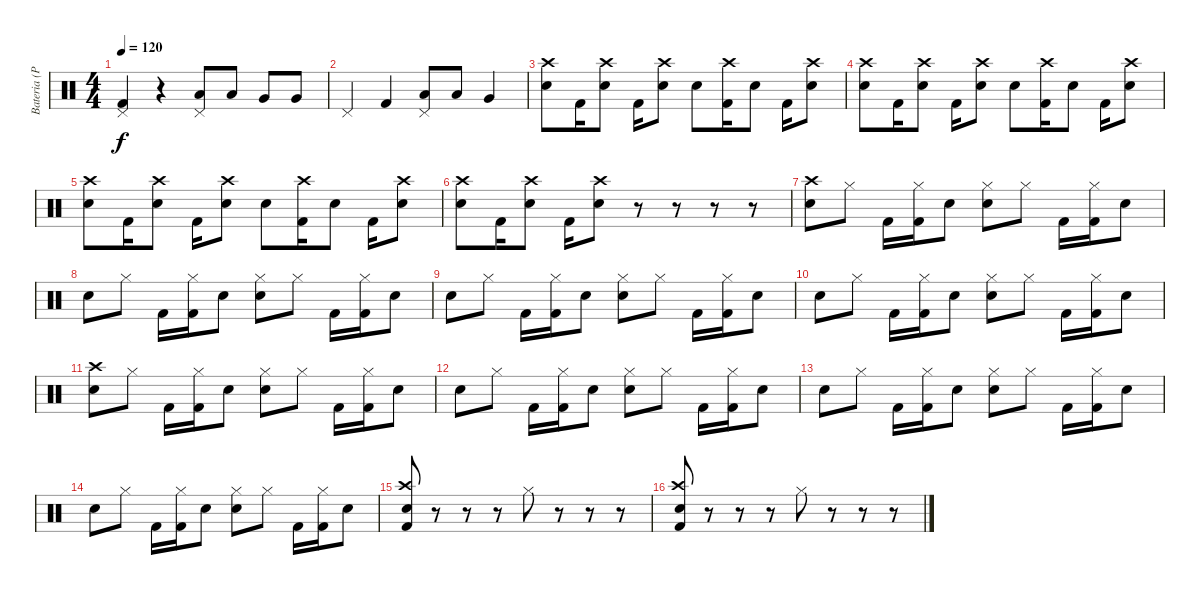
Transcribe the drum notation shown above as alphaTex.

\track ("Bateria (Pelado)" "Bateria (P") {instrument percussion}
\staff {score}
\articulation defaults
\ts (4 4)
\tempo 120
\clef neutral
\ks c
("Pedal Hi-Hat (hit)" "Kick (hit) 2").4{dy f} r.4 ("Pedal Hi-Hat (hit)" "Low Tom (hit)").8 "Low Tom (hit)".8 "Very Low Tom (hit)".8 "Very Low Tom (hit)".8 |
"Pedal Hi-Hat (hit)".4 "Kick (hit) 2".4 ("Pedal Hi-Hat (hit)" "Low Tom (hit)").8 "Low Tom (hit)".8 "Very Low Tom (hit)".4 |
("Crash high (hit)" "Electric Snare (hit)").8 "Kick (hit) 2".16 ("Crash high (hit)" "Electric Snare (hit)").8 "Kick (hit) 2".16 ("Crash high (hit)" "Electric Snare (hit)").8 "Electric Snare (hit)".8 ("Crash high (hit)" "Kick (hit) 2").16 "Electric Snare (hit)".8 "Kick (hit) 2".16 ("Crash high (hit)" "Electric Snare (hit)").8 |
("Crash high (hit)" "Electric Snare (hit)").8 "Kick (hit) 2".16 ("Crash high (hit)" "Electric Snare (hit)").8 "Kick (hit) 2".16 ("Crash high (hit)" "Electric Snare (hit)").8 "Electric Snare (hit)".8 ("Crash high (hit)" "Kick (hit) 2").16 "Electric Snare (hit)".8 "Kick (hit) 2".16 ("Crash high (hit)" "Electric Snare (hit)").8 |
("Crash high (hit)" "Electric Snare (hit)").8 "Kick (hit) 2".16 ("Crash high (hit)" "Electric Snare (hit)").8 "Kick (hit) 2".16 ("Crash high (hit)" "Electric Snare (hit)").8 "Electric Snare (hit)".8 ("Crash high (hit)" "Kick (hit) 2").16 "Electric Snare (hit)".8 "Kick (hit) 2".16 ("Crash high (hit)" "Electric Snare (hit)").8 |
("Crash high (hit)" "Electric Snare (hit)").8 "Kick (hit) 2".16 ("Crash high (hit)" "Electric Snare (hit)").8 "Kick (hit) 2".16 ("Crash high (hit)" "Electric Snare (hit)").8 r.8 r.8 r.8 r.8 |
("Crash high (hit)" "Electric Snare (hit)").8 "Hi-Hat (closed)".8 "Kick (hit) 2".16 ("Hi-Hat (closed)" "Kick (hit) 2").16 "Electric Snare (hit)".8 ("Hi-Hat (closed)" "Electric Snare (hit)").8 "Hi-Hat (closed)".8 "Kick (hit) 2".16 ("Hi-Hat (closed)" "Kick (hit) 2").16 "Electric Snare (hit)".8 |
"Electric Snare (hit)".8 "Hi-Hat (closed)".8 "Kick (hit) 2".16 ("Hi-Hat (closed)" "Kick (hit) 2").16 "Electric Snare (hit)".8 ("Hi-Hat (closed)" "Electric Snare (hit)").8 "Hi-Hat (closed)".8 "Kick (hit) 2".16 ("Hi-Hat (closed)" "Kick (hit) 2").16 "Electric Snare (hit)".8 |
"Electric Snare (hit)".8 "Hi-Hat (closed)".8 "Kick (hit) 2".16 ("Hi-Hat (closed)" "Kick (hit) 2").16 "Electric Snare (hit)".8 ("Hi-Hat (closed)" "Electric Snare (hit)").8 "Hi-Hat (closed)".8 "Kick (hit) 2".16 ("Hi-Hat (closed)" "Kick (hit) 2").16 "Electric Snare (hit)".8 |
"Electric Snare (hit)".8 "Hi-Hat (closed)".8 "Kick (hit) 2".16 ("Hi-Hat (closed)" "Kick (hit) 2").16 "Electric Snare (hit)".8 ("Hi-Hat (closed)" "Electric Snare (hit)").8 "Hi-Hat (closed)".8 "Kick (hit) 2".16 ("Hi-Hat (closed)" "Kick (hit) 2").16 "Electric Snare (hit)".8 |
("Crash high (hit)" "Electric Snare (hit)").8 "Hi-Hat (closed)".8 "Kick (hit) 2".16 ("Hi-Hat (closed)" "Kick (hit) 2").16 "Electric Snare (hit)".8 ("Hi-Hat (closed)" "Electric Snare (hit)").8 "Hi-Hat (closed)".8 "Kick (hit) 2".16 ("Hi-Hat (closed)" "Kick (hit) 2").16 "Electric Snare (hit)".8 |
"Electric Snare (hit)".8 "Hi-Hat (closed)".8 "Kick (hit) 2".16 ("Hi-Hat (closed)" "Kick (hit) 2").16 "Electric Snare (hit)".8 ("Hi-Hat (closed)" "Electric Snare (hit)").8 "Hi-Hat (closed)".8 "Kick (hit) 2".16 ("Hi-Hat (closed)" "Kick (hit) 2").16 "Electric Snare (hit)".8 |
"Electric Snare (hit)".8 "Hi-Hat (closed)".8 "Kick (hit) 2".16 ("Hi-Hat (closed)" "Kick (hit) 2").16 "Electric Snare (hit)".8 ("Hi-Hat (closed)" "Electric Snare (hit)").8 "Hi-Hat (closed)".8 "Kick (hit) 2".16 ("Hi-Hat (closed)" "Kick (hit) 2").16 "Electric Snare (hit)".8 |
"Electric Snare (hit)".8 "Hi-Hat (closed)".8 "Kick (hit) 2".16 ("Hi-Hat (closed)" "Kick (hit) 2").16 "Electric Snare (hit)".8 ("Hi-Hat (closed)" "Electric Snare (hit)").8 "Hi-Hat (closed)".8 "Kick (hit) 2".16 ("Hi-Hat (closed)" "Kick (hit) 2").16 "Electric Snare (hit)".8 |
("Crash high (hit)" "Electric Snare (hit)" "Kick (hit) 2").8 r.8 r.8 r.8 "Hi-Hat (closed)".8 r.8 r.8 r.8 |
("Crash high (hit)" "Electric Snare (hit)" "Kick (hit) 2").8 r.8 r.8 r.8 "Hi-Hat (closed)".8 r.8 r.8 r.8
